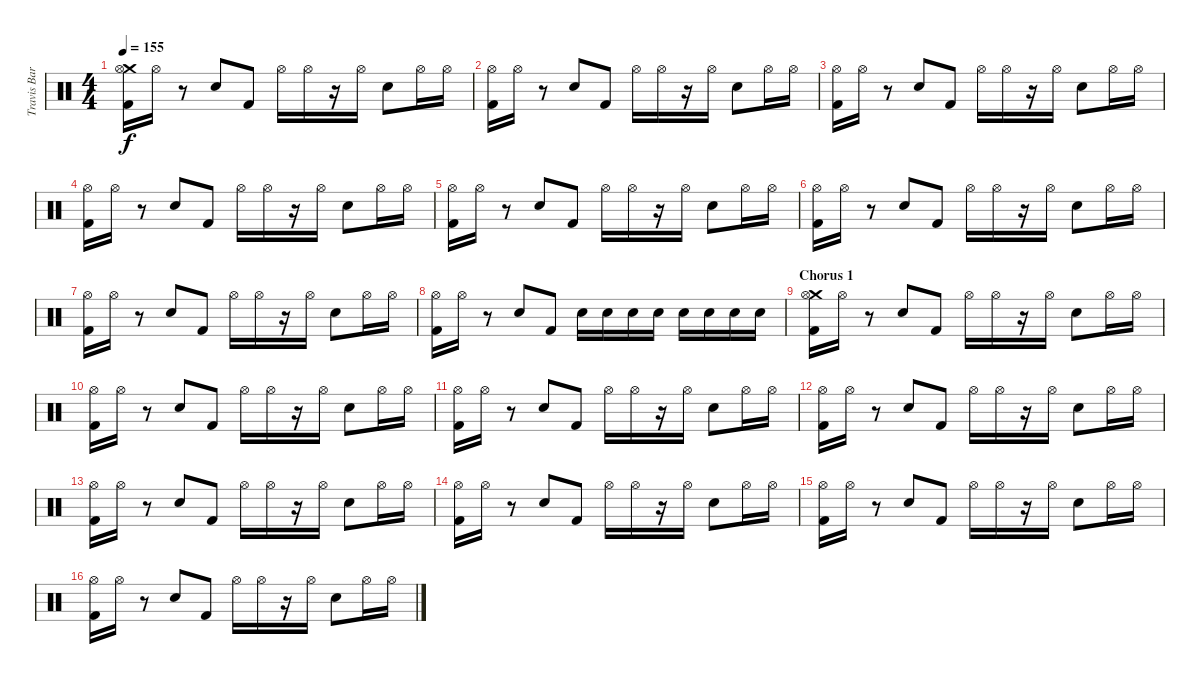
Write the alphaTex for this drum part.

\track ("Travis Barker Drums" "Travis Bar") {instrument percussion}
\staff {score}
\articulation defaults
\ts (4 4)
\tempo 155
\clef neutral
\ks c
("Crash medium (hit)" "Hi-Hat (open)" "Kick (hit) 2").16{dy f} "Hi-Hat (open)".16 r.8 "Electric Snare (hit)".8 "Kick (hit) 2".8 "Hi-Hat (open)".16 "Hi-Hat (open)".16 r.16 "Hi-Hat (open)".16 "Electric Snare (hit)".8 "Hi-Hat (open)".16 "Hi-Hat (open)".16 |
("Hi-Hat (open)" "Kick (hit) 2").16 "Hi-Hat (open)".16 r.8 "Electric Snare (hit)".8 "Kick (hit) 2".8 "Hi-Hat (open)".16 "Hi-Hat (open)".16 r.16 "Hi-Hat (open)".16 "Electric Snare (hit)".8 "Hi-Hat (open)".16 "Hi-Hat (open)".16 |
("Hi-Hat (open)" "Kick (hit) 2").16 "Hi-Hat (open)".16 r.8 "Electric Snare (hit)".8 "Kick (hit) 2".8 "Hi-Hat (open)".16 "Hi-Hat (open)".16 r.16 "Hi-Hat (open)".16 "Electric Snare (hit)".8 "Hi-Hat (open)".16 "Hi-Hat (open)".16 |
("Hi-Hat (open)" "Kick (hit) 2").16 "Hi-Hat (open)".16 r.8 "Electric Snare (hit)".8 "Kick (hit) 2".8 "Hi-Hat (open)".16 "Hi-Hat (open)".16 r.16 "Hi-Hat (open)".16 "Electric Snare (hit)".8 "Hi-Hat (open)".16 "Hi-Hat (open)".16 |
("Hi-Hat (open)" "Kick (hit) 2").16 "Hi-Hat (open)".16 r.8 "Electric Snare (hit)".8 "Kick (hit) 2".8 "Hi-Hat (open)".16 "Hi-Hat (open)".16 r.16 "Hi-Hat (open)".16 "Electric Snare (hit)".8 "Hi-Hat (open)".16 "Hi-Hat (open)".16 |
("Hi-Hat (open)" "Kick (hit) 2").16 "Hi-Hat (open)".16 r.8 "Electric Snare (hit)".8 "Kick (hit) 2".8 "Hi-Hat (open)".16 "Hi-Hat (open)".16 r.16 "Hi-Hat (open)".16 "Electric Snare (hit)".8 "Hi-Hat (open)".16 "Hi-Hat (open)".16 |
("Hi-Hat (open)" "Kick (hit) 2").16 "Hi-Hat (open)".16 r.8 "Electric Snare (hit)".8 "Kick (hit) 2".8 "Hi-Hat (open)".16 "Hi-Hat (open)".16 r.16 "Hi-Hat (open)".16 "Electric Snare (hit)".8 "Hi-Hat (open)".16 "Hi-Hat (open)".16 |
("Hi-Hat (open)" "Kick (hit) 2").16 "Hi-Hat (open)".16 r.8 "Electric Snare (hit)".8 "Kick (hit) 2".8 "Electric Snare (hit)".16 "Electric Snare (hit)".16 "Electric Snare (hit)".16 "Electric Snare (hit)".16 "Electric Snare (hit)".16 "Electric Snare (hit)".16 "Electric Snare (hit)".16 "Electric Snare (hit)".16 |
\section ("" "Chorus 1")
("Crash medium (hit)" "Hi-Hat (open)" "Kick (hit) 2").16 "Hi-Hat (open)".16 r.8 "Electric Snare (hit)".8 "Kick (hit) 2".8 "Hi-Hat (open)".16 "Hi-Hat (open)".16 r.16 "Hi-Hat (open)".16 "Electric Snare (hit)".8 "Hi-Hat (open)".16 "Hi-Hat (open)".16 |
("Hi-Hat (open)" "Kick (hit) 2").16 "Hi-Hat (open)".16 r.8 "Electric Snare (hit)".8 "Kick (hit) 2".8 "Hi-Hat (open)".16 "Hi-Hat (open)".16 r.16 "Hi-Hat (open)".16 "Electric Snare (hit)".8 "Hi-Hat (open)".16 "Hi-Hat (open)".16 |
("Hi-Hat (open)" "Kick (hit) 2").16 "Hi-Hat (open)".16 r.8 "Electric Snare (hit)".8 "Kick (hit) 2".8 "Hi-Hat (open)".16 "Hi-Hat (open)".16 r.16 "Hi-Hat (open)".16 "Electric Snare (hit)".8 "Hi-Hat (open)".16 "Hi-Hat (open)".16 |
("Hi-Hat (open)" "Kick (hit) 2").16 "Hi-Hat (open)".16 r.8 "Electric Snare (hit)".8 "Kick (hit) 2".8 "Hi-Hat (open)".16 "Hi-Hat (open)".16 r.16 "Hi-Hat (open)".16 "Electric Snare (hit)".8 "Hi-Hat (open)".16 "Hi-Hat (open)".16 |
("Hi-Hat (open)" "Kick (hit) 2").16 "Hi-Hat (open)".16 r.8 "Electric Snare (hit)".8 "Kick (hit) 2".8 "Hi-Hat (open)".16 "Hi-Hat (open)".16 r.16 "Hi-Hat (open)".16 "Electric Snare (hit)".8 "Hi-Hat (open)".16 "Hi-Hat (open)".16 |
("Hi-Hat (open)" "Kick (hit) 2").16 "Hi-Hat (open)".16 r.8 "Electric Snare (hit)".8 "Kick (hit) 2".8 "Hi-Hat (open)".16 "Hi-Hat (open)".16 r.16 "Hi-Hat (open)".16 "Electric Snare (hit)".8 "Hi-Hat (open)".16 "Hi-Hat (open)".16 |
("Hi-Hat (open)" "Kick (hit) 2").16 "Hi-Hat (open)".16 r.8 "Electric Snare (hit)".8 "Kick (hit) 2".8 "Hi-Hat (open)".16 "Hi-Hat (open)".16 r.16 "Hi-Hat (open)".16 "Electric Snare (hit)".8 "Hi-Hat (open)".16 "Hi-Hat (open)".16 |
("Hi-Hat (open)" "Kick (hit) 2").16 "Hi-Hat (open)".16 r.8 "Electric Snare (hit)".8 "Kick (hit) 2".8 "Hi-Hat (open)".16 "Hi-Hat (open)".16 r.16 "Hi-Hat (open)".16 "Electric Snare (hit)".8 "Hi-Hat (open)".16 "Hi-Hat (open)".16
